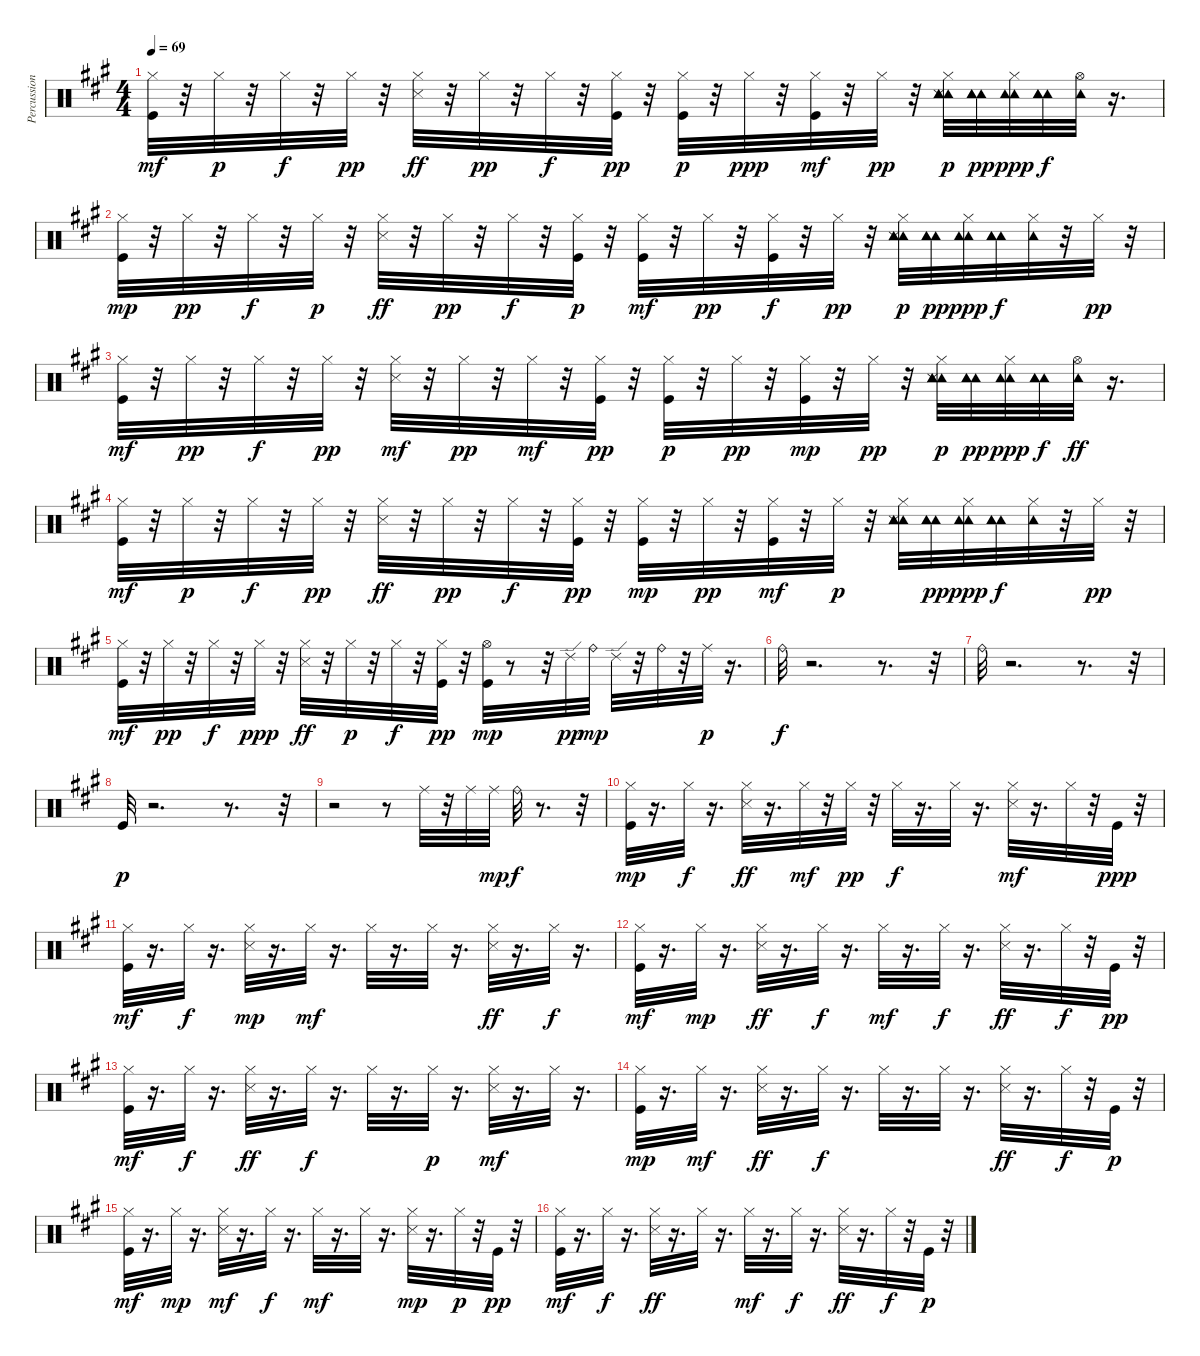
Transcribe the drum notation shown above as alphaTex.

\track ("Percussions" "Percussion") {instrument percussion}
\staff {score}
\articulation defaults
\ts (4 4)
\tempo 69
\clef neutral
\ks f#minor
("Kick (hit)" "Hi-Hat (closed)").32{dy mf} r.32 "Hi-Hat (closed)".32{dy p} r.32 "Hi-Hat (closed)".32{dy f} r.32 "Hi-Hat (closed)".32{dy pp} r.32 ("Hi-Hat (closed)" "Snare (side stick) 3").32{dy ff} r.32 "Hi-Hat (closed)".32{dy pp} r.32 "Hi-Hat (closed)".32{dy f} r.32 ("Hi-Hat (closed)" "Kick (hit)").32{dy pp} r.32 ("Kick (hit)" "Hi-Hat (closed)").32{dy p} r.32 "Hi-Hat (closed)".32{dy ppp} r.32 ("Kick (hit)" "Hi-Hat (closed)").32{dy mf} r.32 "Hi-Hat (closed)".32{dy pp} r.32 ("Tambourine (hit)" "Snare (side stick) 3" "Hi-Hat (closed)" "Tambourine (hit)" "Tambourine (hit)").32{dy p} ("Tambourine (hit)" "Tambourine (hit)" "Tambourine (hit)").32{dy pp} ("Tambourine (hit)" "Hi-Hat (closed)" "Tambourine (hit)").32{dy ppp} ("Tambourine (hit)" "Tambourine (hit)" "Tambourine (hit)").32{dy f} ("Tambourine (hit)" "Hi-Hat (open)").32 r.16{d} |
("Hi-Hat (closed)" "Kick (hit)").32{dy mp} r.32 "Hi-Hat (closed)".32{dy pp} r.32 "Hi-Hat (closed)".32{dy f} r.32 "Hi-Hat (closed)".32{dy p} r.32 ("Snare (side stick) 3" "Hi-Hat (closed)").32{dy ff} r.32 "Hi-Hat (closed)".32{dy pp} r.32 "Hi-Hat (closed)".32{dy f} r.32 ("Hi-Hat (closed)" "Kick (hit)").32{dy p} r.32 ("Hi-Hat (closed)" "Kick (hit)").32{dy mf} r.32 "Hi-Hat (closed)".32{dy pp} r.32 ("Hi-Hat (closed)" "Kick (hit)").32{dy f} r.32 "Hi-Hat (closed)".32{dy pp} r.32 ("Tambourine (hit)" "Hi-Hat (closed)" "Tambourine (hit)" "Snare (side stick) 3" "Tambourine (hit)").32{dy p} ("Tambourine (hit)" "Tambourine (hit)" "Tambourine (hit)").32{dy pp} ("Tambourine (hit)" "Hi-Hat (closed)" "Tambourine (hit)").32{dy ppp} ("Tambourine (hit)" "Tambourine (hit)" "Tambourine (hit)").32{dy f} ("Tambourine (hit)" "Hi-Hat (closed)").32 r.32 "Hi-Hat (closed)".32{dy pp} r.32 |
("Kick (hit)" "Hi-Hat (closed)").32{dy mf} r.32 "Hi-Hat (closed)".32{dy pp} r.32 "Hi-Hat (closed)".32{dy f} r.32 "Hi-Hat (closed)".32{dy pp} r.32 ("Snare (side stick) 3" "Hi-Hat (closed)").32{dy mf} r.32 "Hi-Hat (closed)".32{dy pp} r.32 "Hi-Hat (closed)".32{dy mf} r.32 ("Hi-Hat (closed)" "Kick (hit)").32{dy pp} r.32 ("Hi-Hat (closed)" "Kick (hit)").32{dy p} r.32 "Hi-Hat (closed)".32{dy pp} r.32 ("Hi-Hat (closed)" "Kick (hit)").32{dy mp} r.32 "Hi-Hat (closed)".32{dy pp} r.32 ("Tambourine (hit)" "Hi-Hat (closed)" "Tambourine (hit)" "Snare (side stick) 3" "Tambourine (hit)").32{dy p} ("Tambourine (hit)" "Tambourine (hit)" "Tambourine (hit)").32{dy pp} ("Tambourine (hit)" "Hi-Hat (closed)" "Tambourine (hit)").32{dy ppp} ("Tambourine (hit)" "Tambourine (hit)" "Tambourine (hit)").32{dy f} ("Tambourine (hit)" "Hi-Hat (open)").32{dy ff} r.16{d} |
("Hi-Hat (closed)" "Kick (hit)").32{dy mf} r.32 "Hi-Hat (closed)".32{dy p} r.32 "Hi-Hat (closed)".32{dy f} r.32 "Hi-Hat (closed)".32{dy pp} r.32 ("Hi-Hat (closed)" "Snare (side stick) 3").32{dy ff} r.32 "Hi-Hat (closed)".32{dy pp} r.32 "Hi-Hat (closed)".32{dy f} r.32 ("Hi-Hat (closed)" "Kick (hit)").32{dy pp} r.32 ("Kick (hit)" "Hi-Hat (closed)").32{dy mp} r.32 "Hi-Hat (closed)".32{dy pp} r.32 ("Hi-Hat (closed)" "Kick (hit)").32{dy mf} r.32 "Hi-Hat (closed)".32{dy p} r.32 ("Tambourine (hit)" "Hi-Hat (closed)" "Tambourine (hit)" "Snare (side stick) 3" "Tambourine (hit)").32 ("Tambourine (hit)" "Tambourine (hit)" "Tambourine (hit)").32{dy pp} ("Tambourine (hit)" "Hi-Hat (closed)" "Tambourine (hit)").32{dy ppp} ("Tambourine (hit)" "Tambourine (hit)" "Tambourine (hit)").32{dy f} ("Tambourine (hit)" "Hi-Hat (closed)").32 r.32 "Hi-Hat (closed)".32{dy pp} r.32 |
("Hi-Hat (closed)" "Kick (hit)").32{dy mf} r.32 "Hi-Hat (closed)".32{dy pp} r.32 "Hi-Hat (closed)".32{dy f} r.32 "Hi-Hat (closed)".32{dy ppp} r.32 ("Hi-Hat (closed)" "Snare (side stick) 3").32{dy ff} r.32 "Hi-Hat (closed)".32{dy p} r.32 "Hi-Hat (closed)".32{dy f} r.32 ("Kick (hit)" "Hi-Hat (closed)").32{dy pp} r.32 ("Hi-Hat (open)" "Kick (hit)").32{dy mp} r.8 r.32 "Ride (edge) 2".32{dy pp} "Ride (bell)".32{dy mp} "Ride (edge) 2".32 r.32 "Ride (bell)".32 r.32 "Ride (middle)".32{dy p} r.16{d} |
"Ride (bell)".32{dy f} r.2{d} r.8{d} r.32 |
"Ride (bell)".32 r.2{d} r.8{d} r.32 |
"Kick (hit)".32{dy p} r.2{d} r.8{d} r.32 |
r.2 r.8 "Ride (middle)".32 r.32 "Ride (middle)".32 "Ride (middle)".32{dy mp} "Ride (bell)".32{dy f} r.8{d} r.32 |
("Kick (hit)" "Hi-Hat (closed)").32{dy mp} r.16{d} "Hi-Hat (closed)".32{dy f} r.16{d} ("Snare (side stick) 3" "Hi-Hat (closed)").32{dy ff} r.16{d} "Hi-Hat (closed)".32{dy mf} r.32 "Hi-Hat (closed)".32{dy pp} r.32 "Hi-Hat (closed)".32{dy f} r.16{d} "Hi-Hat (closed)".32 r.16{d} ("Snare (side stick) 3" "Hi-Hat (closed)").32{dy mf} r.16{d} "Hi-Hat (closed)".32 r.32 "Kick (hit)".32{dy ppp} r.32 |
("Kick (hit)" "Hi-Hat (closed)").32{dy mf} r.16{d} "Hi-Hat (closed)".32{dy f} r.16{d} ("Snare (side stick) 3" "Hi-Hat (closed)").32{dy mp} r.16{d} "Hi-Hat (closed)".32{dy mf} r.16{d} "Hi-Hat (closed)".32 r.16{d} "Hi-Hat (closed)".32 r.16{d} ("Hi-Hat (closed)" "Snare (side stick) 3").32{dy ff} r.16{d} "Hi-Hat (closed)".32{dy f} r.16{d} |
("Kick (hit)" "Hi-Hat (closed)").32{dy mf} r.16{d} "Hi-Hat (closed)".32{dy mp} r.16{d} ("Snare (side stick) 3" "Hi-Hat (closed)").32{dy ff} r.16{d} "Hi-Hat (closed)".32{dy f} r.16{d} "Hi-Hat (closed)".32{dy mf} r.16{d} "Hi-Hat (closed)".32{dy f} r.16{d} ("Hi-Hat (closed)" "Snare (side stick) 3").32{dy ff} r.16{d} "Hi-Hat (closed)".32{dy f} r.32 "Kick (hit)".32{dy pp} r.32 |
("Kick (hit)" "Hi-Hat (closed)").32{dy mf} r.16{d} "Hi-Hat (closed)".32{dy f} r.16{d} ("Hi-Hat (closed)" "Snare (side stick) 3").32{dy ff} r.16{d} "Hi-Hat (closed)".32{dy f} r.16{d} "Hi-Hat (closed)".32 r.16{d} "Hi-Hat (closed)".32{dy p} r.16{d} ("Snare (side stick) 3" "Hi-Hat (closed)").32{dy mf} r.16{d} "Hi-Hat (closed)".32 r.16{d} |
("Kick (hit)" "Hi-Hat (closed)").32{dy mp} r.16{d} "Hi-Hat (closed)".32{dy mf} r.16{d} ("Snare (side stick) 3" "Hi-Hat (closed)").32{dy ff} r.16{d} "Hi-Hat (closed)".32{dy f} r.16{d} "Hi-Hat (closed)".32 r.16{d} "Hi-Hat (closed)".32 r.16{d} ("Snare (side stick) 3" "Hi-Hat (closed)").32{dy ff} r.16{d} "Hi-Hat (closed)".32{dy f} r.32 "Kick (hit)".32{dy p} r.32 |
("Kick (hit)" "Hi-Hat (closed)").32{dy mf} r.16{d} "Hi-Hat (closed)".32{dy mp} r.16{d} ("Snare (side stick) 3" "Hi-Hat (closed)").32{dy mf} r.16{d} "Hi-Hat (closed)".32{dy f} r.16{d} "Hi-Hat (closed)".32{dy mf} r.16{d} "Hi-Hat (closed)".32 r.16{d} ("Snare (side stick) 3" "Hi-Hat (closed)").32{dy mp} r.16{d} "Hi-Hat (closed)".32{dy p} r.32 "Kick (hit)".32{dy pp} r.32 |
("Kick (hit)" "Hi-Hat (closed)").32{dy mf} r.16{d} "Hi-Hat (closed)".32{dy f} r.16{d} ("Hi-Hat (closed)" "Snare (side stick) 3").32{dy ff} r.16{d} "Hi-Hat (closed)".32 r.16{d} "Hi-Hat (closed)".32{dy mf} r.16{d} "Hi-Hat (closed)".32{dy f} r.16{d} ("Hi-Hat (closed)" "Snare (side stick) 3").32{dy ff} r.16{d} "Hi-Hat (closed)".32{dy f} r.32 "Kick (hit)".32{dy p} r.32
